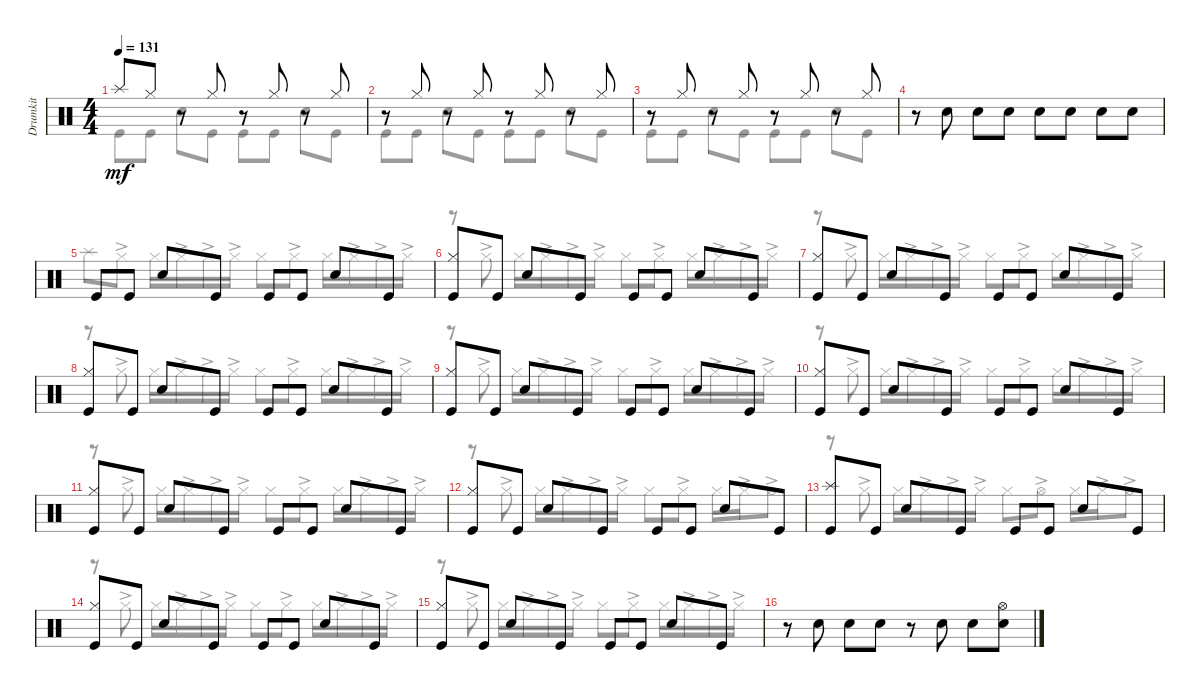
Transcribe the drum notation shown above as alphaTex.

\track ("Drumkit" "Drumkit") {instrument percussion}
\staff {score}
\articulation defaults
\voice
\ts (4 4)
\tempo 131
\clef neutral
\ks c "Splash (hit)".8{dy mf} "Hi-Hat (closed)".8
r.8 "Hi-Hat (closed)".8 r.8 "Hi-Hat (closed)".8 r.8 "Hi-Hat (closed)".8 |
r.8 "Hi-Hat (closed)".8 r.8 "Hi-Hat (closed)".8 r.8 "Hi-Hat (closed)".8 r.8 "Hi-Hat (closed)".8 |
r.8 "Hi-Hat (closed)".8 r.8 "Hi-Hat (closed)".8 r.8 "Hi-Hat (closed)".8 r.8 "Hi-Hat (closed)".8 |
r.8 "Snare (hit) 2".8 "Snare (hit) 2".8 "Snare (hit) 2".8 "Snare (hit) 2".8 "Snare (hit) 2".8 "Snare (hit) 2".8 "Snare (hit) 2".8 |
"Kick (hit)".8 "Kick (hit)".8 "Snare (hit) 2".8 "Kick (hit)".8 "Kick (hit)".8 "Kick (hit)".8 "Snare (hit) 2".8 "Kick (hit)".8 |
("Kick (hit)" "Hi-Hat (closed)").8 "Kick (hit)".8 "Snare (hit) 2".8 "Kick (hit)".8 "Kick (hit)".8 "Kick (hit)".8 "Snare (hit) 2".8 "Kick (hit)".8 |
("Kick (hit)" "Hi-Hat (closed)").8 "Kick (hit)".8 "Snare (hit) 2".8 "Kick (hit)".8 "Kick (hit)".8 "Kick (hit)".8 "Snare (hit) 2".8 "Kick (hit)".8 |
("Kick (hit)" "Hi-Hat (closed)").8 "Kick (hit)".8 "Snare (hit) 2".8 "Kick (hit)".8 "Kick (hit)".8 "Kick (hit)".8 "Snare (hit) 2".8 "Kick (hit)".8 |
("Kick (hit)" "Hi-Hat (closed)").8 "Kick (hit)".8 "Snare (hit) 2".8 "Kick (hit)".8 "Kick (hit)".8 "Kick (hit)".8 "Snare (hit) 2".8 "Kick (hit)".8 |
("Kick (hit)" "Hi-Hat (closed)").8 "Kick (hit)".8 "Snare (hit) 2".8 "Kick (hit)".8 "Kick (hit)".8 "Kick (hit)".8 "Snare (hit) 2".8 "Kick (hit)".8 |
("Kick (hit)" "Hi-Hat (closed)").8 "Kick (hit)".8 "Snare (hit) 2".8 "Kick (hit)".8 "Kick (hit)".8 "Kick (hit)".8 "Snare (hit) 2".8 "Kick (hit)".8 |
("Kick (hit)" "Hi-Hat (closed)").8 "Kick (hit)".8 "Snare (hit) 2".8 "Kick (hit)".8 "Kick (hit)".8 "Kick (hit)".8 "Snare (hit) 2".8 "Kick (hit)".8 |
("Kick (hit)" "Splash (hit)").8 "Kick (hit)".8 "Snare (hit) 2".8 "Kick (hit)".8 "Kick (hit)".8 "Kick (hit)".8 "Snare (hit) 2".8 "Kick (hit)".8 |
("Kick (hit)" "Hi-Hat (closed)").8 "Kick (hit)".8 "Snare (hit) 2".8 "Kick (hit)".8 "Kick (hit)".8 "Kick (hit)".8 "Snare (hit) 2".8 "Kick (hit)".8 |
("Kick (hit)" "Hi-Hat (closed)").8 "Kick (hit)".8 "Snare (hit) 2".8 "Kick (hit)".8 "Kick (hit)".8 "Kick (hit)".8 "Snare (hit) 2".8 "Kick (hit)".8 |
r.8 "Snare (hit) 2".8 "Snare (hit) 2".8 "Snare (hit) 2".8 r.8 "Snare (hit) 2".8 "Snare (hit) 2".8 ("Snare (hit) 2" "Hi-Hat (open)").8
\voice
\clef neutral
\ottava regular
\simile none
\ks c "Kick (hit)".8{dy mf} "Kick (hit)".8 "Snare (hit) 2".8 "Kick (hit)".8 "Kick (hit)".8 "Kick (hit)".8 "Snare (hit) 2".8 "Kick (hit)".8
|
"Kick (hit)".8 "Kick (hit)".8 "Snare (hit) 2".8 "Kick (hit)".8 "Kick (hit)".8 "Kick (hit)".8 "Snare (hit) 2".8 "Kick (hit)".8 |
"Kick (hit)".8 "Kick (hit)".8 "Snare (hit) 2".8 "Kick (hit)".8 "Kick (hit)".8 "Kick (hit)".8 "Snare (hit) 2".8 "Kick (hit)".8 |
|
"Splash (hit)".8 "Hi-Hat (closed)"{ac}.8 "Hi-Hat (closed)".16 "Hi-Hat (closed)"{ac}.16 "Hi-Hat (closed)"{ac}.16 "Hi-Hat (closed)"{ac}.16 "Hi-Hat (closed)".8 "Hi-Hat (closed)"{ac}.8 "Hi-Hat (closed)".16 "Hi-Hat (closed)"{ac}.16 "Hi-Hat (closed)"{ac}.16 "Hi-Hat (closed)"{ac}.16 |
r.8 "Hi-Hat (closed)"{ac}.8 "Hi-Hat (closed)".16 "Hi-Hat (closed)"{ac}.16 "Hi-Hat (closed)"{ac}.16 "Hi-Hat (closed)"{ac}.16 "Hi-Hat (closed)".8 "Hi-Hat (closed)"{ac}.8 "Hi-Hat (closed)".16 "Hi-Hat (closed)"{ac}.16 "Hi-Hat (closed)"{ac}.16 "Hi-Hat (closed)"{ac}.16 |
r.8 "Hi-Hat (closed)"{ac}.8 "Hi-Hat (closed)".16 "Hi-Hat (closed)"{ac}.16 "Hi-Hat (closed)"{ac}.16 "Hi-Hat (closed)"{ac}.16 "Hi-Hat (closed)".8 "Hi-Hat (closed)"{ac}.8 "Hi-Hat (closed)".16 "Hi-Hat (closed)"{ac}.16 "Hi-Hat (closed)"{ac}.16 "Hi-Hat (closed)"{ac}.16 |
r.8 "Hi-Hat (closed)"{ac}.8 "Hi-Hat (closed)".16 "Hi-Hat (closed)"{ac}.16 "Hi-Hat (closed)"{ac}.16 "Hi-Hat (closed)"{ac}.16 "Hi-Hat (closed)".8 "Hi-Hat (closed)"{ac}.8 "Hi-Hat (closed)".16 "Hi-Hat (closed)"{ac}.16 "Hi-Hat (closed)"{ac}.16 "Hi-Hat (closed)"{ac}.16 |
r.8 "Hi-Hat (closed)"{ac}.8 "Hi-Hat (closed)".16 "Hi-Hat (closed)"{ac}.16 "Hi-Hat (closed)"{ac}.16 "Hi-Hat (closed)"{ac}.16 "Hi-Hat (closed)".8 "Hi-Hat (closed)"{ac}.8 "Hi-Hat (closed)".16 "Hi-Hat (closed)"{ac}.16 "Hi-Hat (closed)"{ac}.16 "Hi-Hat (closed)"{ac}.16 |
r.8 "Hi-Hat (closed)"{ac}.8 "Hi-Hat (closed)".16 "Hi-Hat (closed)"{ac}.16 "Hi-Hat (closed)"{ac}.16 "Hi-Hat (closed)"{ac}.16 "Hi-Hat (closed)".8 "Hi-Hat (closed)"{ac}.8 "Hi-Hat (closed)".16 "Hi-Hat (closed)"{ac}.16 "Hi-Hat (closed)"{ac}.16 "Hi-Hat (closed)"{ac}.16 |
r.8 "Hi-Hat (closed)"{ac}.8 "Hi-Hat (closed)".16 "Hi-Hat (closed)"{ac}.16 "Hi-Hat (closed)"{ac}.16 "Hi-Hat (closed)"{ac}.16 "Hi-Hat (closed)".8 "Hi-Hat (closed)"{ac}.8 "Hi-Hat (closed)".16 "Hi-Hat (closed)"{ac}.16 "Hi-Hat (closed)"{ac}.16 "Hi-Hat (closed)"{ac}.16 |
r.8 "Hi-Hat (closed)"{ac}.8 "Hi-Hat (closed)".16 "Hi-Hat (closed)"{ac}.16 "Hi-Hat (closed)"{ac}.16 "Hi-Hat (closed)"{ac}.16 "Hi-Hat (closed)".8 "Hi-Hat (closed)"{ac}.8 "Hi-Hat (closed)".16 "Hi-Hat (closed)"{ac}.16 "Hi-Hat (open)"{ac}.8 |
r.8 "Hi-Hat (closed)"{ac}.8 "Hi-Hat (closed)".16 "Hi-Hat (closed)"{ac}.16 "Hi-Hat (closed)"{ac}.16 "Hi-Hat (closed)"{ac}.16 "Hi-Hat (closed)".8 "Hi-Hat (open)"{ac}.8 "Hi-Hat (closed)".16 "Hi-Hat (closed)"{ac}.16 "Hi-Hat (open)"{ac}.8 |
r.8 "Hi-Hat (closed)"{ac}.8 "Hi-Hat (closed)".16 "Hi-Hat (closed)"{ac}.16 "Hi-Hat (closed)"{ac}.16 "Hi-Hat (closed)"{ac}.16 "Hi-Hat (closed)".8 "Hi-Hat (closed)"{ac}.8 "Hi-Hat (closed)".16 "Hi-Hat (closed)"{ac}.16 "Hi-Hat (closed)"{ac}.16 "Hi-Hat (closed)"{ac}.16 |
r.8 "Hi-Hat (closed)"{ac}.8 "Hi-Hat (closed)".16 "Hi-Hat (closed)"{ac}.16 "Hi-Hat (closed)"{ac}.16 "Hi-Hat (closed)"{ac}.16 "Hi-Hat (closed)".8 "Hi-Hat (closed)"{ac}.8 "Hi-Hat (closed)".16 "Hi-Hat (closed)"{ac}.16 "Hi-Hat (closed)"{ac}.16 "Hi-Hat (closed)"{ac}.16 |
